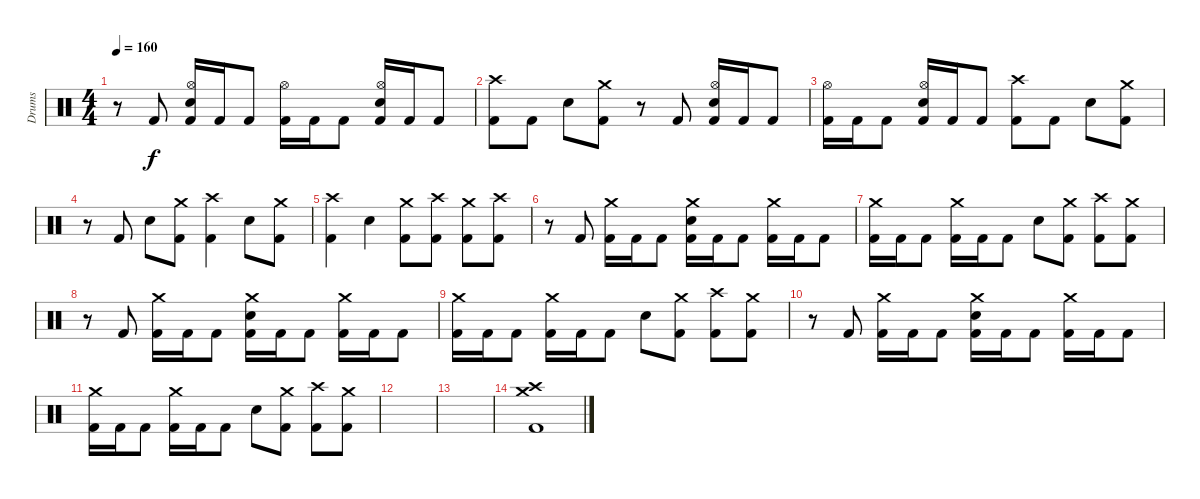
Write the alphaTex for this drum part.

\track ("Drums" "Drums") {instrument percussion}
\staff {score}
\articulation defaults
\ts (4 4)
\tempo 160
\clef neutral
\ks c
r.8{dy f} "Kick (hit) 2".8 ("Hi-Hat (open)" "Electric Snare (hit)" "Kick (hit) 2").16 "Kick (hit) 2".16 "Kick (hit) 2".8 ("Hi-Hat (open)" "Kick (hit) 2").16 "Kick (hit) 2".16 "Kick (hit) 2".8 ("Hi-Hat (open)" "Electric Snare (hit)" "Kick (hit) 2").16 "Kick (hit) 2".16 "Kick (hit) 2".8 |
("Crash high (hit)" "Kick (hit) 2").8 "Kick (hit) 2".8 "Electric Snare (hit)".8 ("Crash medium (hit)" "Kick (hit) 2").8 r.8 "Kick (hit) 2".8 ("Hi-Hat (open)" "Electric Snare (hit)" "Kick (hit) 2").16 "Kick (hit) 2".16 "Kick (hit) 2".8 |
("Hi-Hat (open)" "Kick (hit) 2").16 "Kick (hit) 2".16 "Kick (hit) 2".8 ("Hi-Hat (open)" "Electric Snare (hit)" "Kick (hit) 2").16 "Kick (hit) 2".16 "Kick (hit) 2".8 ("Crash high (hit)" "Kick (hit) 2").8 "Kick (hit) 2".8 "Electric Snare (hit)".8 ("Crash medium (hit)" "Kick (hit) 2").8 |
r.8 "Kick (hit) 2".8 "Electric Snare (hit)".8 ("Crash medium (hit)" "Kick (hit) 2").8 ("Crash high (hit)" "Kick (hit) 2").4 "Electric Snare (hit)".8 ("Crash medium (hit)" "Kick (hit) 2").8 |
("Crash high (hit)" "Kick (hit) 2").4 "Electric Snare (hit)".4 ("Crash medium (hit)" "Kick (hit) 2").8 ("Crash high (hit)" "Kick (hit) 2").8 ("Crash medium (hit)" "Kick (hit) 2").8 ("Crash high (hit)" "Kick (hit) 2").8 |
r.8 "Kick (hit) 2".8 ("Crash medium (hit)" "Kick (hit) 2").16 "Kick (hit) 2".16 "Kick (hit) 2".8 ("Crash medium (hit)" "Electric Snare (hit)" "Kick (hit) 2").16 "Kick (hit) 2".16 "Kick (hit) 2".8 ("Crash medium (hit)" "Kick (hit) 2").16 "Kick (hit) 2".16 "Kick (hit) 2".8 |
("Crash medium (hit)" "Kick (hit) 2").16 "Kick (hit) 2".16 "Kick (hit) 2".8 ("Crash medium (hit)" "Kick (hit) 2").16 "Kick (hit) 2".16 "Kick (hit) 2".8 "Electric Snare (hit)".8 ("Crash medium (hit)" "Kick (hit) 2").8 ("Crash high (hit)" "Kick (hit) 2").8 ("Crash medium (hit)" "Kick (hit) 2").8 |
r.8 "Kick (hit) 2".8 ("Crash medium (hit)" "Kick (hit) 2").16 "Kick (hit) 2".16 "Kick (hit) 2".8 ("Crash medium (hit)" "Electric Snare (hit)" "Kick (hit) 2").16 "Kick (hit) 2".16 "Kick (hit) 2".8 ("Crash medium (hit)" "Kick (hit) 2").16 "Kick (hit) 2".16 "Kick (hit) 2".8 |
("Crash medium (hit)" "Kick (hit) 2").16 "Kick (hit) 2".16 "Kick (hit) 2".8 ("Crash medium (hit)" "Kick (hit) 2").16 "Kick (hit) 2".16 "Kick (hit) 2".8 "Electric Snare (hit)".8 ("Crash medium (hit)" "Kick (hit) 2").8 ("Crash high (hit)" "Kick (hit) 2").8 ("Crash medium (hit)" "Kick (hit) 2").8 |
r.8 "Kick (hit) 2".8 ("Crash medium (hit)" "Kick (hit) 2").16 "Kick (hit) 2".16 "Kick (hit) 2".8 ("Crash medium (hit)" "Electric Snare (hit)" "Kick (hit) 2").16 "Kick (hit) 2".16 "Kick (hit) 2".8 ("Crash medium (hit)" "Kick (hit) 2").16 "Kick (hit) 2".16 "Kick (hit) 2".8 |
("Crash medium (hit)" "Kick (hit) 2").16 "Kick (hit) 2".16 "Kick (hit) 2".8 ("Crash medium (hit)" "Kick (hit) 2").16 "Kick (hit) 2".16 "Kick (hit) 2".8 "Electric Snare (hit)".8 ("Crash medium (hit)" "Kick (hit) 2").8 ("Crash high (hit)" "Kick (hit) 2").8 ("Crash medium (hit)" "Kick (hit) 2").8 |
|
|
("Crash high (hit)" "Crash medium (hit)" "Kick (hit) 2").1
